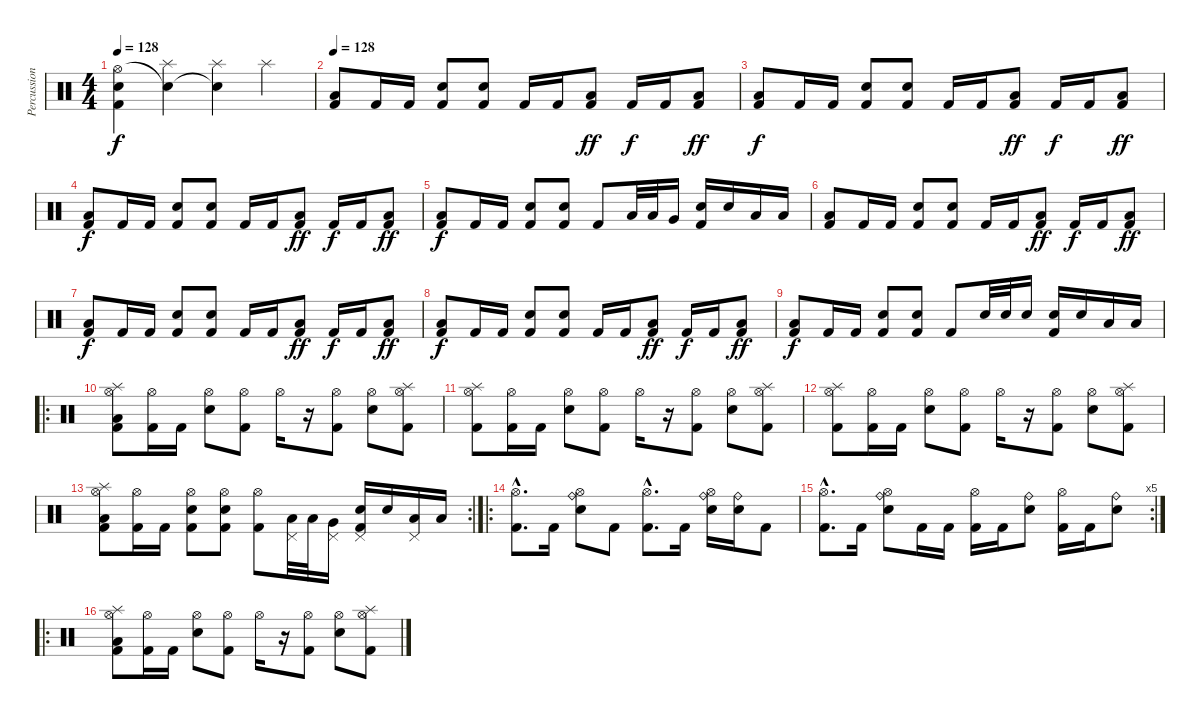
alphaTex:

\track ("Percussion" "Percussion") {instrument percussion}
\staff {score}
\articulation defaults
\ts (4 4)
\tempo 128
\clef neutral
\ks c
("Hi-Hat (open)" "Electric Snare (hit)" "Kick (hit) 2").4{dy f} ("Snare (hit)"{t} "Splash (hit)").4 ("Snare (hit)"{t} "Splash (hit)").4 "Splash (hit)".4 |
\tempo 128
("Low Floor Tom (hit)" "Kick (hit) 2").8 "Kick (hit) 2".16 "Kick (hit) 2".16 ("Electric Snare (hit)" "Kick (hit) 2").8 ("Electric Snare (hit)" "Kick (hit) 2").8 "Kick (hit) 2".16 "Kick (hit) 2".16 ("Low Floor Tom (hit)" "Kick (hit) 2").8{dy ff} "Kick (hit) 2".16{dy f} "Kick (hit) 2".16 ("Low Floor Tom (hit)" "Kick (hit) 2").8{dy ff} |
("Low Floor Tom (hit)" "Kick (hit) 2").8{dy f} "Kick (hit) 2".16 "Kick (hit) 2".16 ("Electric Snare (hit)" "Kick (hit) 2").8 ("Electric Snare (hit)" "Kick (hit) 2").8 "Kick (hit) 2".16 "Kick (hit) 2".16 ("Low Floor Tom (hit)" "Kick (hit) 2").8{dy ff} "Kick (hit) 2".16{dy f} "Kick (hit) 2".16 ("Low Floor Tom (hit)" "Kick (hit) 2").8{dy ff} |
("Low Floor Tom (hit)" "Kick (hit) 2").8{dy f} "Kick (hit) 2".16 "Kick (hit) 2".16 ("Electric Snare (hit)" "Kick (hit) 2").8 ("Electric Snare (hit)" "Kick (hit) 2").8 "Kick (hit) 2".16 "Kick (hit) 2".16 ("Low Floor Tom (hit)" "Kick (hit) 2").8{dy ff} "Kick (hit) 2".16{dy f} "Kick (hit) 2".16 ("Low Floor Tom (hit)" "Kick (hit) 2").8{dy ff} |
("Low Floor Tom (hit)" "Kick (hit) 2").8{dy f} "Kick (hit) 2".16 "Kick (hit) 2".16 ("Electric Snare (hit)" "Kick (hit) 2").8 ("Electric Snare (hit)" "Kick (hit) 2").8 "Kick (hit) 2".8 "Low Tom (hit)".32 "Low Tom (hit)".32 "Very Low Tom (hit)".16 ("Electric Snare (hit)" "Kick (hit) 2").16 "Electric Snare (hit)".16 "Low Floor Tom (hit)".16 "Low Floor Tom (hit)".16 |
("Low Floor Tom (hit)" "Kick (hit) 2").8 "Kick (hit) 2".16 "Kick (hit) 2".16 ("Electric Snare (hit)" "Kick (hit) 2").8 ("Electric Snare (hit)" "Kick (hit) 2").8 "Kick (hit) 2".16 "Kick (hit) 2".16 ("Low Floor Tom (hit)" "Kick (hit) 2").8{dy ff} "Kick (hit) 2".16{dy f} "Kick (hit) 2".16 ("Low Floor Tom (hit)" "Kick (hit) 2").8{dy ff} |
("Low Floor Tom (hit)" "Kick (hit) 2").8{dy f} "Kick (hit) 2".16 "Kick (hit) 2".16 ("Electric Snare (hit)" "Kick (hit) 2").8 ("Electric Snare (hit)" "Kick (hit) 2").8 "Kick (hit) 2".16 "Kick (hit) 2".16 ("Low Floor Tom (hit)" "Kick (hit) 2").8{dy ff} "Kick (hit) 2".16{dy f} "Kick (hit) 2".16 ("Low Floor Tom (hit)" "Kick (hit) 2").8{dy ff} |
("Low Floor Tom (hit)" "Kick (hit) 2").8{dy f} "Kick (hit) 2".16 "Kick (hit) 2".16 ("Electric Snare (hit)" "Kick (hit) 2").8 ("Electric Snare (hit)" "Kick (hit) 2").8 "Kick (hit) 2".16 "Kick (hit) 2".16 ("Low Floor Tom (hit)" "Kick (hit) 2").8{dy ff} "Kick (hit) 2".16{dy f} "Kick (hit) 2".16 ("Low Floor Tom (hit)" "Kick (hit) 2").8{dy ff} |
("Low Floor Tom (hit)" "Kick (hit) 2").8{dy f} "Kick (hit) 2".16 "Kick (hit) 2".16 ("Electric Snare (hit)" "Kick (hit) 2").8 ("Electric Snare (hit)" "Kick (hit) 2").8 "Kick (hit) 2".8 "Electric Snare (hit)".32 "Electric Snare (hit)".32 "Electric Snare (hit)".16 ("Electric Snare (hit)" "Kick (hit) 2").16 "Electric Snare (hit)".16 "Low Floor Tom (hit)".16 "Low Floor Tom (hit)".16 |
\ro
("Splash (hit)" "Hi-Hat (open)" "Low Floor Tom (hit)" "Kick (hit) 2").8 ("Hi-Hat (open)" "Kick (hit) 2").16 "Kick (hit) 2".16 ("Hi-Hat (open)" "Electric Snare (hit)").8 ("Hi-Hat (open)" "Kick (hit) 2").8 "Hi-Hat (open)".16 r.16 ("Hi-Hat (open)" "Kick (hit) 2").8 ("Hi-Hat (open)" "Electric Snare (hit)").8 ("Splash (hit)" "Hi-Hat (open)" "Kick (hit) 2").8 |
("Splash (hit)" "Hi-Hat (open)" "Kick (hit) 2").8 ("Hi-Hat (open)" "Kick (hit) 2").16 "Kick (hit) 2".16 ("Hi-Hat (open)" "Electric Snare (hit)").8 ("Hi-Hat (open)" "Kick (hit) 2").8 "Hi-Hat (open)".16 r.16 ("Hi-Hat (open)" "Kick (hit) 2").8 ("Hi-Hat (open)" "Electric Snare (hit)").8 ("Splash (hit)" "Hi-Hat (open)" "Kick (hit) 2").8 |
("Splash (hit)" "Hi-Hat (open)" "Kick (hit) 2").8 ("Hi-Hat (open)" "Kick (hit) 2").16 "Kick (hit) 2".16 ("Hi-Hat (open)" "Electric Snare (hit)").8 ("Hi-Hat (open)" "Kick (hit) 2").8 "Hi-Hat (open)".16 r.16 ("Hi-Hat (open)" "Kick (hit) 2").8 ("Hi-Hat (open)" "Electric Snare (hit)").8 ("Splash (hit)" "Hi-Hat (open)" "Kick (hit) 2").8 |
\rc 2
("Splash (hit)" "Hi-Hat (open)" "Low Floor Tom (hit)" "Kick (hit) 2").8 ("Hi-Hat (open)" "Kick (hit) 2").16 "Kick (hit) 2".16 ("Hi-Hat (open)" "Electric Snare (hit)" "Kick (hit) 2").8 ("Hi-Hat (open)" "Electric Snare (hit)" "Kick (hit) 2").8 ("Hi-Hat (open)" "Kick (hit) 2").8 ("Pedal Hi-Hat (hit)" "Low Tom (hit)").32 "Low Tom (hit)".32 ("Pedal Hi-Hat (hit)" "Very Low Tom (hit)").16 ("Pedal Hi-Hat (hit)" "Electric Snare (hit)" "Kick (hit) 2").16 "Electric Snare (hit)".16 ("Pedal Hi-Hat (hit)" "Low Floor Tom (hit)").16 "Low Floor Tom (hit)".16 |
\ro
("Hi-Hat (open)"{hac} "Kick (hit) 2"{hac}).8{d} "Kick (hit) 2".16 ("Ride (bell)" "Hi-Hat (open)" "Electric Snare (hit)").8 "Kick (hit) 2".8 ("Hi-Hat (open)"{hac} "Kick (hit) 2"{hac}).8{d} "Kick (hit) 2".16 ("Ride (bell)" "Hi-Hat (open)" "Electric Snare (hit)").16 ("Ride (bell)" "Electric Snare (hit)").16 "Kick (hit) 2".8 |
\rc 5
("Hi-Hat (open)"{hac} "Kick (hit) 2"{hac}).8{d} "Kick (hit) 2".16 ("Ride (bell)" "Hi-Hat (open)" "Electric Snare (hit)").8 "Kick (hit) 2".16 "Kick (hit) 2".16 ("Hi-Hat (open)" "Kick (hit) 2").16 "Kick (hit) 2".16 ("Ride (bell)" "Electric Snare (hit)").8 ("Hi-Hat (open)" "Kick (hit) 2").16 "Kick (hit) 2".16 ("Ride (bell)" "Electric Snare (hit)").8 |
\ro
("Splash (hit)" "Hi-Hat (open)" "Low Floor Tom (hit)" "Kick (hit) 2").8 ("Hi-Hat (open)" "Kick (hit) 2").16 "Kick (hit) 2".16 ("Hi-Hat (open)" "Electric Snare (hit)").8 ("Hi-Hat (open)" "Kick (hit) 2").8 "Hi-Hat (open)".16 r.16 ("Hi-Hat (open)" "Kick (hit) 2").8 ("Hi-Hat (open)" "Electric Snare (hit)").8 ("Splash (hit)" "Hi-Hat (open)" "Kick (hit) 2").8
